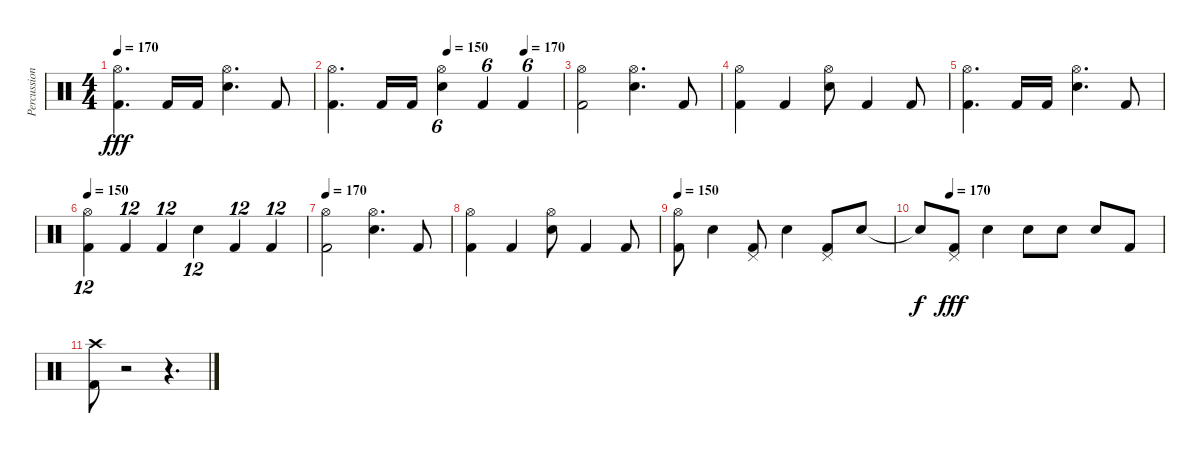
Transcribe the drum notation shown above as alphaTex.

\track ("Percussion" "Percussion") {instrument percussion}
\staff {score}
\articulation defaults
\ts (4 4)
\tempo 170
\clef neutral
\ks c
("Hi-Hat (open)" "Kick (hit) 2").4{d dy fff} "Kick (hit) 2".16 "Kick (hit) 2".16 ("Hi-Hat (open)" "Snare (hit) 2").4{d} "Kick (hit) 2".8 |
\tempo (150 0.5)
\tempo (170 0.8333333333333334)
("Hi-Hat (open)" "Kick (hit) 2").4{d} "Kick (hit) 2".16 "Kick (hit) 2".16 ("Hi-Hat (open)" "Snare (hit) 2").4{tu (6 4)} "Kick (hit) 2".4{tu (6 4)} "Kick (hit) 2".4{tu (6 4)} |
("Hi-Hat (open)" "Kick (hit) 2").2 ("Hi-Hat (open)" "Snare (hit) 2").4{d} "Kick (hit) 2".8 |
("Hi-Hat (open)" "Kick (hit) 2").4 "Kick (hit) 2".4 ("Hi-Hat (open)" "Snare (hit) 2").8 "Kick (hit) 2".4 "Kick (hit) 2".8 |
("Hi-Hat (open)" "Kick (hit) 2").4{d} "Kick (hit) 2".16 "Kick (hit) 2".16 ("Hi-Hat (open)" "Snare (hit) 2").4{d} "Kick (hit) 2".8 |
\tempo 150
("Hi-Hat (open)" "Kick (hit) 2").4{tu (12 8)} "Kick (hit) 2".4{tu (12 8)} "Kick (hit) 2".4{tu (12 8)} "Snare (hit) 2".4{tu (12 8)} "Kick (hit) 2".4{tu (12 8)} "Kick (hit) 2".4{tu (12 8)} |
\tempo 170
("Hi-Hat (open)" "Kick (hit) 2").2 ("Hi-Hat (open)" "Snare (hit) 2").4{d} "Kick (hit) 2".8 |
("Hi-Hat (open)" "Kick (hit) 2").4 "Kick (hit) 2".4 ("Hi-Hat (open)" "Snare (hit) 2").8 "Kick (hit) 2".4 "Kick (hit) 2".8 |
\tempo 150
("Hi-Hat (open)" "Kick (hit) 2").8 "Snare (hit) 2".4 ("Pedal Hi-Hat (hit)" "Kick (hit) 2").8 "Snare (hit) 2".4 ("Pedal Hi-Hat (hit)" "Kick (hit) 2").8 "Snare (hit) 2".8 |
\tempo (170 0.125)
"Snare (hit) 2"{t}.8{dy f} ("Pedal Hi-Hat (hit)" "Kick (hit) 2").8{dy fff} "Snare (hit) 2".4 "Snare (hit) 2".8 "Snare (hit) 2".8 "Snare (hit) 2".8 "Kick (hit) 2".8 |
("Crash high (hit)" "Kick (hit) 2").8 r.2 r.4{d}
